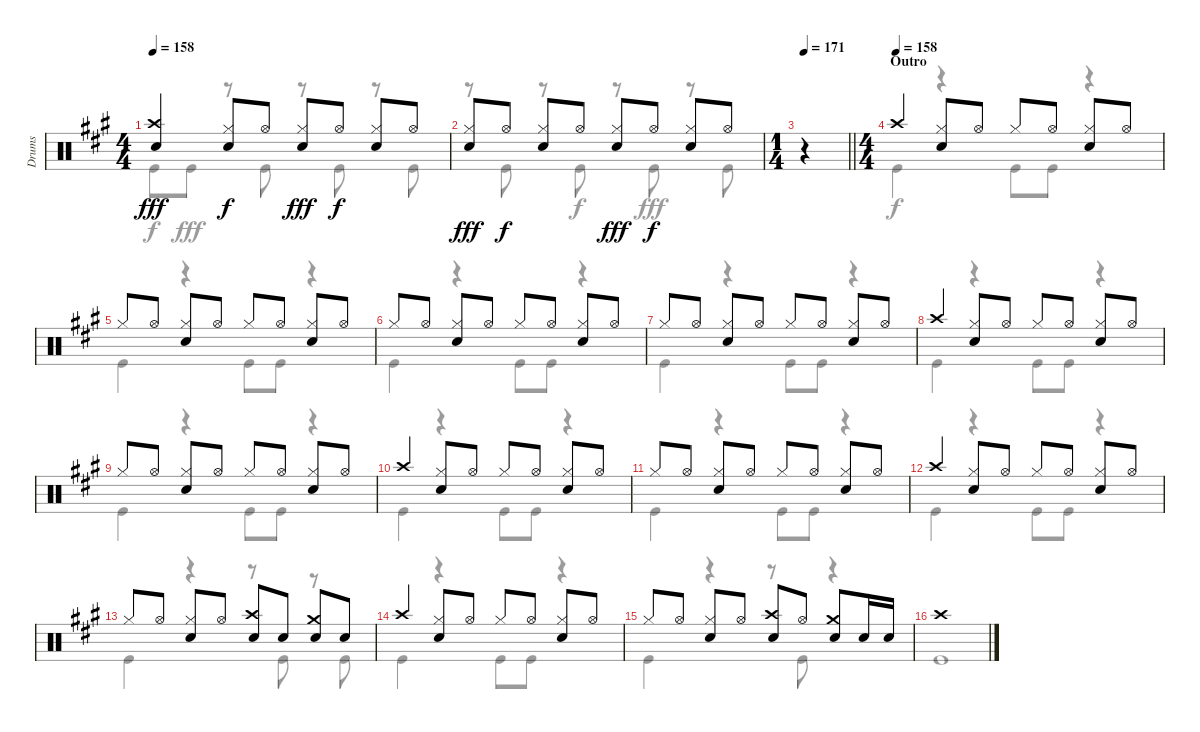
\track ("Drums" "Drums") {instrument percussion}
\staff {score}
\articulation defaults
\voice
\ts (4 4)
\tempo 158
\clef neutral
\ks a
("Crash high (hit)" "Snare (hit) 2").4{dy fff} ("Hi-Hat (closed)" "Snare (hit) 2").8{dy f} "Hi-Hat (open)".8 ("Hi-Hat (closed)" "Snare (hit) 2").8{dy fff} "Hi-Hat (open)".8{dy f} ("Hi-Hat (closed)" "Snare (hit) 2").8 "Hi-Hat (open)".8 |
("Hi-Hat (closed)" "Snare (hit) 2").8{dy fff} "Hi-Hat (open)".8{dy f} ("Hi-Hat (closed)" "Snare (hit) 2").8 "Hi-Hat (open)".8 ("Hi-Hat (closed)" "Snare (hit) 2").8{dy fff} "Hi-Hat (open)".8{dy f} ("Hi-Hat (closed)" "Snare (hit) 2").8 "Hi-Hat (open)".8 |
\ts (1 4)
\tempo 171
\barLineRight lightlight
r.4 |
\ts (4 4)
\section ("" "Outro")
\tempo (158)
"Crash high (hit)".4 ("Hi-Hat (closed)" "Snare (hit) 2").8 "Hi-Hat (open)".8 "Hi-Hat (closed)".8 "Hi-Hat (open)".8 ("Hi-Hat (closed)" "Snare (hit) 2").8 "Hi-Hat (open)".8 |
"Hi-Hat (closed)".8 "Hi-Hat (open)".8 ("Hi-Hat (closed)" "Snare (hit) 2").8 "Hi-Hat (open)".8 "Hi-Hat (closed)".8 "Hi-Hat (open)".8 ("Hi-Hat (closed)" "Snare (hit) 2").8 "Hi-Hat (open)".8 |
"Hi-Hat (closed)".8 "Hi-Hat (open)".8 ("Hi-Hat (closed)" "Snare (hit) 2").8 "Hi-Hat (open)".8 "Hi-Hat (closed)".8 "Hi-Hat (open)".8 ("Hi-Hat (closed)" "Snare (hit) 2").8 "Hi-Hat (open)".8 |
"Hi-Hat (closed)".8 "Hi-Hat (open)".8 ("Hi-Hat (closed)" "Snare (hit) 2").8 "Hi-Hat (open)".8 "Hi-Hat (closed)".8 "Hi-Hat (open)".8 ("Hi-Hat (closed)" "Snare (hit) 2").8 "Hi-Hat (open)".8 |
"Crash high (hit)".4 ("Hi-Hat (closed)" "Snare (hit) 2").8 "Hi-Hat (open)".8 "Hi-Hat (closed)".8 "Hi-Hat (open)".8 ("Hi-Hat (closed)" "Snare (hit) 2").8 "Hi-Hat (open)".8 |
"Hi-Hat (closed)".8 "Hi-Hat (open)".8 ("Hi-Hat (closed)" "Snare (hit) 2").8 "Hi-Hat (open)".8 "Hi-Hat (closed)".8 "Hi-Hat (open)".8 ("Hi-Hat (closed)" "Snare (hit) 2").8 "Hi-Hat (open)".8 |
"Crash high (hit)".4 ("Hi-Hat (closed)" "Snare (hit) 2").8 "Hi-Hat (open)".8 "Hi-Hat (closed)".8 "Hi-Hat (open)".8 ("Hi-Hat (closed)" "Snare (hit) 2").8 "Hi-Hat (open)".8 |
"Hi-Hat (closed)".8 "Hi-Hat (open)".8 ("Hi-Hat (closed)" "Snare (hit) 2").8 "Hi-Hat (open)".8 "Hi-Hat (closed)".8 "Hi-Hat (open)".8 ("Hi-Hat (closed)" "Snare (hit) 2").8 "Hi-Hat (open)".8 |
"Crash high (hit)".4 ("Hi-Hat (closed)" "Snare (hit) 2").8 "Hi-Hat (open)".8 "Hi-Hat (closed)".8 "Hi-Hat (open)".8 ("Hi-Hat (closed)" "Snare (hit) 2").8 "Hi-Hat (open)".8 |
"Hi-Hat (closed)".8 "Hi-Hat (open)".8 ("Hi-Hat (closed)" "Snare (hit) 2").8 "Hi-Hat (open)".8 ("Crash high (hit)" "Snare (hit) 2").8 "Snare (hit) 2".8 ("Crash medium (hit)" "Snare (hit) 2").8 "Snare (hit) 2".8 |
"Crash high (hit)".4 ("Hi-Hat (closed)" "Snare (hit) 2").8 "Hi-Hat (open)".8 "Hi-Hat (closed)".8 "Hi-Hat (open)".8 ("Hi-Hat (closed)" "Snare (hit) 2").8 "Hi-Hat (open)".8 |
"Hi-Hat (closed)".8 "Hi-Hat (open)".8 ("Hi-Hat (closed)" "Snare (hit) 2").8 "Hi-Hat (open)".8 ("Crash high (hit)" "Snare (hit) 2").8 "Hi-Hat (open)".8 ("Crash medium (hit)" "Snare (hit) 2").8 "Snare (hit) 2".16 "Snare (hit) 2".16 |
"Crash high (hit)".1
\voice
\clef neutral
\ottava regular
\simile none
\ks a "Kick (hit)".8{dy f} "Kick (hit)".8{dy fff}
r.8 "Kick (hit)".8 r.8 "Kick (hit)".8 r.8 "Kick (hit)".8 |
r.8 "Kick (hit)".8 r.8 "Kick (hit)".8{dy f} r.8 "Kick (hit)".8{dy fff} r.8 "Kick (hit)".8 |
\barLineRight lightlight
|
"Kick (hit)".4{dy f} r.4 "Kick (hit)".8 "Kick (hit)".8 r.4 |
"Kick (hit)".4 r.4 "Kick (hit)".8 "Kick (hit)".8 r.4 |
"Kick (hit)".4 r.4 "Kick (hit)".8 "Kick (hit)".8 r.4 |
"Kick (hit)".4 r.4 "Kick (hit)".8 "Kick (hit)".8 r.4 |
"Kick (hit)".4 r.4 "Kick (hit)".8 "Kick (hit)".8 r.4 |
"Kick (hit)".4 r.4 "Kick (hit)".8 "Kick (hit)".8 r.4 |
"Kick (hit)".4 r.4 "Kick (hit)".8 "Kick (hit)".8 r.4 |
"Kick (hit)".4 r.4 "Kick (hit)".8 "Kick (hit)".8 r.4 |
"Kick (hit)".4 r.4 "Kick (hit)".8 "Kick (hit)".8 r.4 |
"Kick (hit)".4 r.4 r.8 "Kick (hit)".8 r.8 "Kick (hit)".8 |
"Kick (hit)".4 r.4 "Kick (hit)".8 "Kick (hit)".8 r.4 |
"Kick (hit)".4 r.4 r.8 "Kick (hit)".8 r.4 |
"Kick (hit)".1
